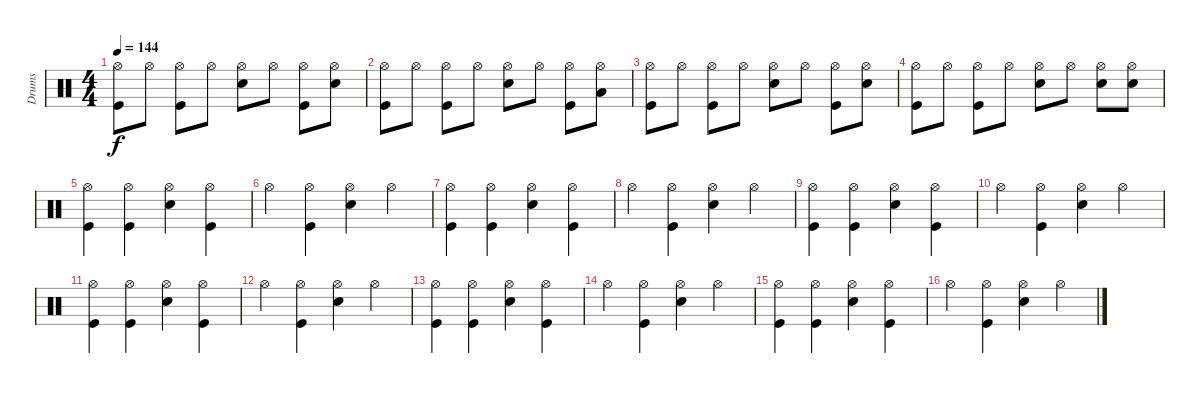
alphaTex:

\track ("Drums               " "Drums     ") {instrument percussion}
\staff {score}
\articulation defaults
\ts (4 4)
\tempo 144
\clef neutral
\ks c
("Hi-Hat (open)" "Kick (hit)").8{dy f} "Hi-Hat (open)".8 ("Hi-Hat (open)" "Kick (hit)").8 "Hi-Hat (open)".8 ("Hi-Hat (open)" "Snare (hit) 2").8 "Hi-Hat (open)".8 ("Hi-Hat (open)" "Kick (hit)").8 ("Hi-Hat (open)" "Snare (hit) 2").8 |
("Hi-Hat (open)" "Kick (hit)").8 "Hi-Hat (open)".8 ("Hi-Hat (open)" "Kick (hit)").8 "Hi-Hat (open)".8 ("Hi-Hat (open)" "Snare (hit) 2").8 "Hi-Hat (open)".8 ("Hi-Hat (open)" "Kick (hit)").8 ("Hi-Hat (open)" "Low Tom (hit)").8 |
("Hi-Hat (open)" "Kick (hit)").8 "Hi-Hat (open)".8 ("Hi-Hat (open)" "Kick (hit)").8 "Hi-Hat (open)".8 ("Hi-Hat (open)" "Snare (hit) 2").8 "Hi-Hat (open)".8 ("Hi-Hat (open)" "Kick (hit)").8 ("Hi-Hat (open)" "Snare (hit) 2").8 |
("Hi-Hat (open)" "Kick (hit)").8 "Hi-Hat (open)".8 ("Hi-Hat (open)" "Kick (hit)").8 "Hi-Hat (open)".8 ("Hi-Hat (open)" "Snare (hit) 2").8 "Hi-Hat (open)".8 ("Hi-Hat (open)" "Snare (hit) 2").8 ("Hi-Hat (open)" "Snare (hit) 2").8 |
("Hi-Hat (open)" "Kick (hit)").4 ("Hi-Hat (open)" "Kick (hit)").4 ("Hi-Hat (open)" "Snare (hit) 2").4 ("Hi-Hat (open)" "Kick (hit)").4 |
"Hi-Hat (open)".4 ("Hi-Hat (open)" "Kick (hit)").4 ("Hi-Hat (open)" "Snare (hit) 2").4 "Hi-Hat (open)".4 |
("Hi-Hat (open)" "Kick (hit)").4 ("Hi-Hat (open)" "Kick (hit)").4 ("Hi-Hat (open)" "Snare (hit) 2").4 ("Hi-Hat (open)" "Kick (hit)").4 |
"Hi-Hat (open)".4 ("Hi-Hat (open)" "Kick (hit)").4 ("Hi-Hat (open)" "Snare (hit) 2").4 "Hi-Hat (open)".4 |
("Hi-Hat (open)" "Kick (hit)").4 ("Hi-Hat (open)" "Kick (hit)").4 ("Hi-Hat (open)" "Snare (hit) 2").4 ("Hi-Hat (open)" "Kick (hit)").4 |
"Hi-Hat (open)".4 ("Hi-Hat (open)" "Kick (hit)").4 ("Hi-Hat (open)" "Snare (hit) 2").4 "Hi-Hat (open)".4 |
("Hi-Hat (open)" "Kick (hit)").4 ("Hi-Hat (open)" "Kick (hit)").4 ("Hi-Hat (open)" "Snare (hit) 2").4 ("Hi-Hat (open)" "Kick (hit)").4 |
"Hi-Hat (open)".4 ("Hi-Hat (open)" "Kick (hit)").4 ("Hi-Hat (open)" "Snare (hit) 2").4 "Hi-Hat (open)".4 |
("Hi-Hat (open)" "Kick (hit)").4 ("Hi-Hat (open)" "Kick (hit)").4 ("Hi-Hat (open)" "Snare (hit) 2").4 ("Hi-Hat (open)" "Kick (hit)").4 |
"Hi-Hat (open)".4 ("Hi-Hat (open)" "Kick (hit)").4 ("Hi-Hat (open)" "Snare (hit) 2").4 "Hi-Hat (open)".4 |
("Hi-Hat (open)" "Kick (hit)").4 ("Hi-Hat (open)" "Kick (hit)").4 ("Hi-Hat (open)" "Snare (hit) 2").4 ("Hi-Hat (open)" "Kick (hit)").4 |
"Hi-Hat (open)".4 ("Hi-Hat (open)" "Kick (hit)").4 ("Hi-Hat (open)" "Snare (hit) 2").4 "Hi-Hat (open)".4
